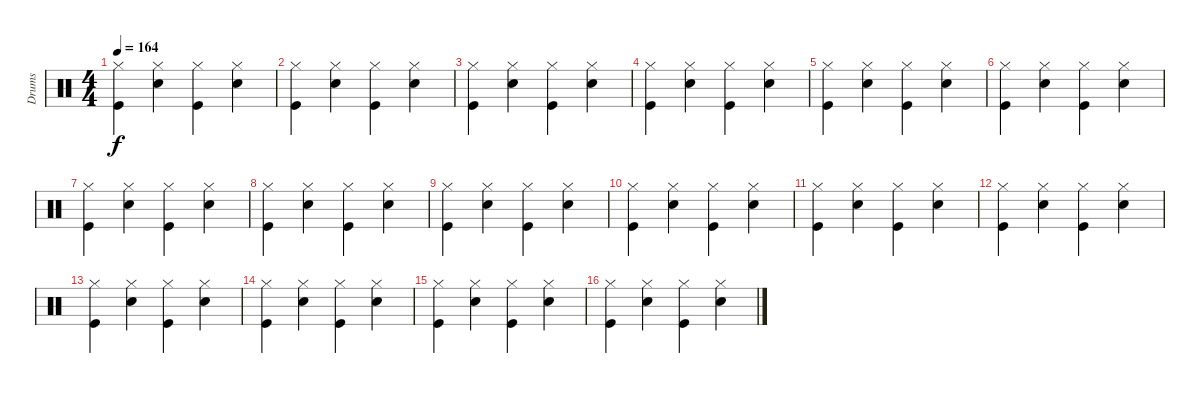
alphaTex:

\track ("Drums" "Drums") {instrument percussion}
\staff {score}
\articulation defaults
\ts (4 4)
\tempo 164
\clef neutral
\ks c
("Hi-Hat (closed)" "Kick (hit)").4{dy f} ("Hi-Hat (closed)" "Snare (hit) 2").4 ("Hi-Hat (closed)" "Kick (hit)").4 ("Hi-Hat (closed)" "Snare (hit) 2").4 |
("Hi-Hat (closed)" "Kick (hit)").4 ("Hi-Hat (closed)" "Snare (hit) 2").4 ("Hi-Hat (closed)" "Kick (hit)").4 ("Hi-Hat (closed)" "Snare (hit) 2").4 |
("Hi-Hat (closed)" "Kick (hit)").4 ("Hi-Hat (closed)" "Snare (hit) 2").4 ("Hi-Hat (closed)" "Kick (hit)").4 ("Hi-Hat (closed)" "Snare (hit) 2").4 |
("Hi-Hat (closed)" "Kick (hit)").4 ("Hi-Hat (closed)" "Snare (hit) 2").4 ("Hi-Hat (closed)" "Kick (hit)").4 ("Hi-Hat (closed)" "Snare (hit) 2").4 |
("Hi-Hat (closed)" "Kick (hit)").4 ("Hi-Hat (closed)" "Snare (hit) 2").4 ("Hi-Hat (closed)" "Kick (hit)").4 ("Hi-Hat (closed)" "Snare (hit) 2").4 |
("Hi-Hat (closed)" "Kick (hit)").4 ("Hi-Hat (closed)" "Snare (hit) 2").4 ("Hi-Hat (closed)" "Kick (hit)").4 ("Hi-Hat (closed)" "Snare (hit) 2").4 |
("Hi-Hat (closed)" "Kick (hit)").4 ("Hi-Hat (closed)" "Snare (hit) 2").4 ("Hi-Hat (closed)" "Kick (hit)").4 ("Hi-Hat (closed)" "Snare (hit) 2").4 |
("Hi-Hat (closed)" "Kick (hit)").4 ("Hi-Hat (closed)" "Snare (hit) 2").4 ("Hi-Hat (closed)" "Kick (hit)").4 ("Hi-Hat (closed)" "Snare (hit) 2").4 |
("Hi-Hat (closed)" "Kick (hit)").4 ("Hi-Hat (closed)" "Snare (hit) 2").4 ("Hi-Hat (closed)" "Kick (hit)").4 ("Hi-Hat (closed)" "Snare (hit) 2").4 |
("Hi-Hat (closed)" "Kick (hit)").4 ("Hi-Hat (closed)" "Snare (hit) 2").4 ("Hi-Hat (closed)" "Kick (hit)").4 ("Hi-Hat (closed)" "Snare (hit) 2").4 |
("Hi-Hat (closed)" "Kick (hit)").4 ("Hi-Hat (closed)" "Snare (hit) 2").4 ("Hi-Hat (closed)" "Kick (hit)").4 ("Hi-Hat (closed)" "Snare (hit) 2").4 |
("Hi-Hat (closed)" "Kick (hit)").4 ("Hi-Hat (closed)" "Snare (hit) 2").4 ("Hi-Hat (closed)" "Kick (hit)").4 ("Hi-Hat (closed)" "Snare (hit) 2").4 |
("Hi-Hat (closed)" "Kick (hit)").4 ("Hi-Hat (closed)" "Snare (hit) 2").4 ("Hi-Hat (closed)" "Kick (hit)").4 ("Hi-Hat (closed)" "Snare (hit) 2").4 |
("Hi-Hat (closed)" "Kick (hit)").4 ("Hi-Hat (closed)" "Snare (hit) 2").4 ("Hi-Hat (closed)" "Kick (hit)").4 ("Hi-Hat (closed)" "Snare (hit) 2").4 |
("Hi-Hat (closed)" "Kick (hit)").4 ("Hi-Hat (closed)" "Snare (hit) 2").4 ("Hi-Hat (closed)" "Kick (hit)").4 ("Hi-Hat (closed)" "Snare (hit) 2").4 |
("Hi-Hat (closed)" "Kick (hit)").4 ("Hi-Hat (closed)" "Snare (hit) 2").4 ("Hi-Hat (closed)" "Kick (hit)").4 ("Hi-Hat (closed)" "Snare (hit) 2").4
